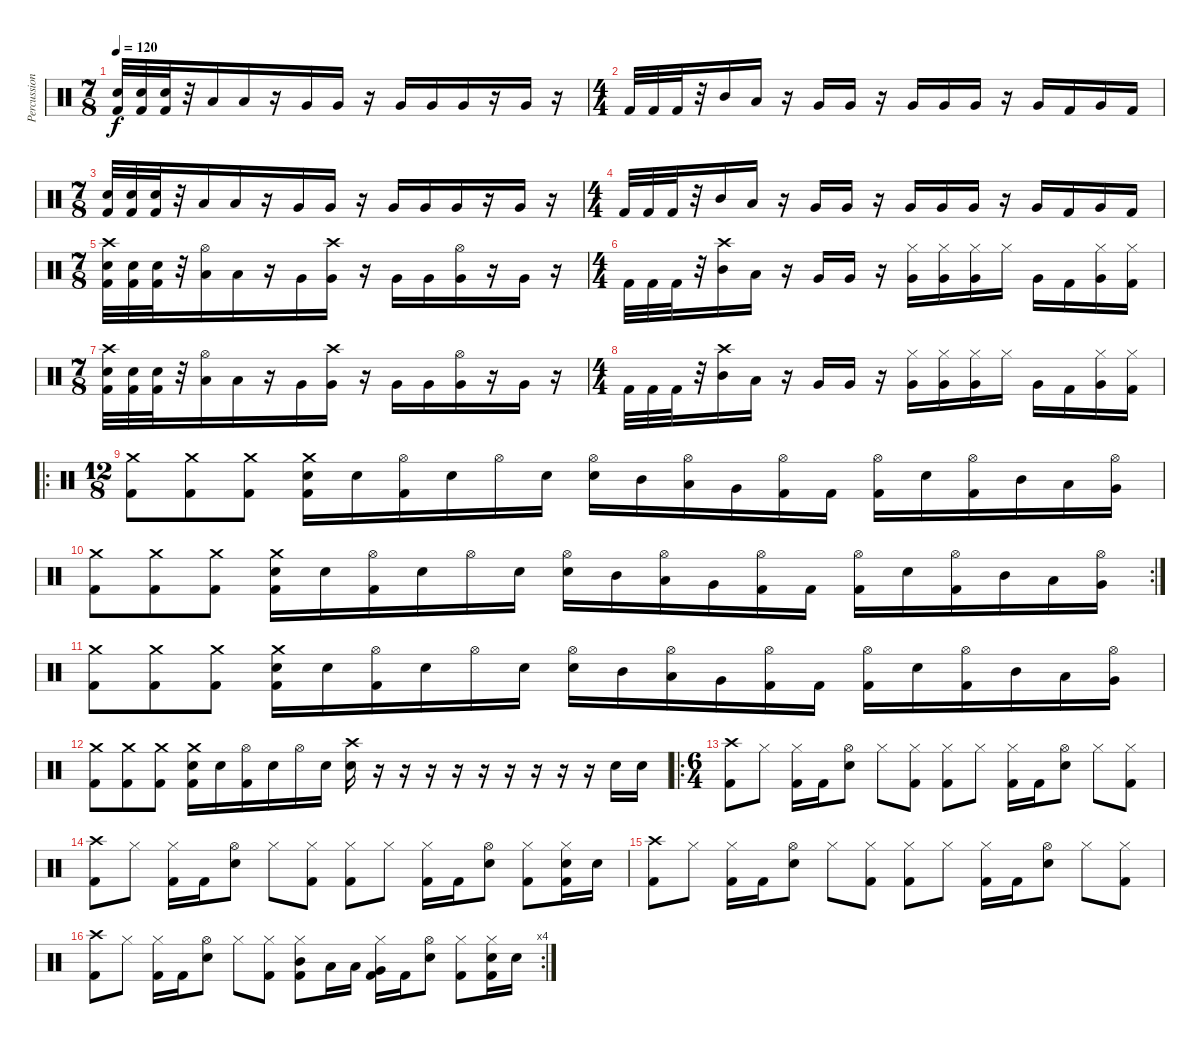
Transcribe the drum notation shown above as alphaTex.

\track ("Percussion" "Percussion") {instrument percussion}
\staff {score}
\articulation defaults
\ts (7 8)
\tempo 120
\clef neutral
\ks c
("Snare (hit) 2" "Kick (hit) 2").32{dy f} ("Snare (hit) 2" "Kick (hit) 2").32 ("Snare (hit) 2" "Kick (hit) 2").32 r.32 "Low Tom (hit)".16 "Low Tom (hit)".16 r.16 "Very Low Tom (hit)".16 "Very Low Tom (hit)".16 r.16 "Very Low Tom (hit)".16 "Very Low Tom (hit)".16 "Very Low Tom (hit)".16 r.16 "Very Low Tom (hit)".16 r.16 |
\ts (4 4)
"Kick (hit) 2".32 "Kick (hit) 2".32 "Kick (hit) 2".32 r.32 "Mid Tom (hit)".16 "Low Tom (hit)".16 r.16 "Very Low Tom (hit)".16 "Very Low Tom (hit)".16 r.16 "Very Low Tom (hit)".16 "Very Low Tom (hit)".16 "Very Low Tom (hit)".16 r.16 "Very Low Tom (hit)".16 "Kick (hit) 2".16 "Very Low Tom (hit)".16 "Kick (hit) 2".16 |
\ts (7 8)
("Snare (hit) 2" "Kick (hit) 2").32 ("Snare (hit) 2" "Kick (hit) 2").32 ("Snare (hit) 2" "Kick (hit) 2").32 r.32 "Low Tom (hit)".16 "Low Tom (hit)".16 r.16 "Very Low Tom (hit)".16 "Very Low Tom (hit)".16 r.16 "Very Low Tom (hit)".16 "Very Low Tom (hit)".16 "Very Low Tom (hit)".16 r.16 "Very Low Tom (hit)".16 r.16 |
\ts (4 4)
"Kick (hit) 2".32 "Kick (hit) 2".32 "Kick (hit) 2".32 r.32 "Mid Tom (hit)".16 "Low Tom (hit)".16 r.16 "Very Low Tom (hit)".16 "Very Low Tom (hit)".16 r.16 "Very Low Tom (hit)".16 "Very Low Tom (hit)".16 "Very Low Tom (hit)".16 r.16 "Very Low Tom (hit)".16 "Kick (hit) 2".16 "Very Low Tom (hit)".16 "Kick (hit) 2".16 |
\ts (7 8)
("Crash high (hit)" "Snare (hit) 2" "Kick (hit) 2").32 ("Snare (hit) 2" "Kick (hit) 2").32 ("Snare (hit) 2" "Kick (hit) 2").32 r.32 ("Hi-Hat (open)" "Low Tom (hit)").16 "Low Tom (hit)".16 r.16 "Very Low Tom (hit)".16 ("Crash high (hit)" "Very Low Tom (hit)").16 r.16 "Very Low Tom (hit)".16 "Very Low Tom (hit)".16 ("Hi-Hat (open)" "Very Low Tom (hit)").16 r.16 "Very Low Tom (hit)".16 r.16 |
\ts (4 4)
"Kick (hit) 2".32 "Kick (hit) 2".32 "Kick (hit) 2".32 r.32 ("Crash high (hit)" "Mid Tom (hit)").16 "Low Tom (hit)".16 r.16 "Very Low Tom (hit)".16 "Very Low Tom (hit)".16 r.16 ("Hi-Hat (closed)" "Very Low Tom (hit)").16 ("Hi-Hat (closed)" "Very Low Tom (hit)").16 ("Hi-Hat (closed)" "Very Low Tom (hit)").16 "Hi-Hat (closed)".16 "Very Low Tom (hit)".16 "Kick (hit) 2".16 ("Hi-Hat (closed)" "Very Low Tom (hit)").16 ("Hi-Hat (closed)" "Kick (hit) 2").16 |
\ts (7 8)
("Crash high (hit)" "Snare (hit) 2" "Kick (hit) 2").32 ("Snare (hit) 2" "Kick (hit) 2").32 ("Snare (hit) 2" "Kick (hit) 2").32 r.32 ("Hi-Hat (open)" "Low Tom (hit)").16 "Low Tom (hit)".16 r.16 "Very Low Tom (hit)".16 ("Crash high (hit)" "Very Low Tom (hit)").16 r.16 "Very Low Tom (hit)".16 "Very Low Tom (hit)".16 ("Hi-Hat (open)" "Very Low Tom (hit)").16 r.16 "Very Low Tom (hit)".16 r.16 |
\ts (4 4)
"Kick (hit) 2".32 "Kick (hit) 2".32 "Kick (hit) 2".32 r.32 ("Crash high (hit)" "Mid Tom (hit)").16 "Low Tom (hit)".16 r.16 "Very Low Tom (hit)".16 "Very Low Tom (hit)".16 r.16 ("Hi-Hat (closed)" "Very Low Tom (hit)").16 ("Hi-Hat (closed)" "Very Low Tom (hit)").16 ("Hi-Hat (closed)" "Very Low Tom (hit)").16 "Hi-Hat (closed)".16 "Very Low Tom (hit)".16 "Kick (hit) 2".16 ("Hi-Hat (closed)" "Very Low Tom (hit)").16 ("Hi-Hat (closed)" "Kick (hit) 2").16 |
\ro
\ts (12 8)
("Crash medium (hit)" "Kick (hit) 2").8 ("Crash medium (hit)" "Kick (hit) 2").8 ("Crash medium (hit)" "Kick (hit) 2").8 ("Crash medium (hit)" "Snare (hit) 2" "Kick (hit) 2").16 "Snare (hit) 2".16 ("Hi-Hat (open)" "Kick (hit) 2").16 "Snare (hit) 2".16 "Hi-Hat (open)".16 "Snare (hit) 2".16 ("Hi-Hat (open)" "Snare (hit) 2").16 "Mid Tom (hit)".16 ("Hi-Hat (open)" "Low Tom (hit)").16 "Very Low Tom (hit)".16 ("Hi-Hat (open)" "Kick (hit) 2").16 "Kick (hit) 2".16 ("Hi-Hat (open)" "Kick (hit) 2").16 "Snare (hit) 2".16 ("Hi-Hat (open)" "Kick (hit) 2").16 "Mid Tom (hit)".16 "Low Tom (hit)".16 ("Hi-Hat (open)" "Very Low Tom (hit)").16 |
\rc 2
("Crash medium (hit)" "Kick (hit) 2").8 ("Crash medium (hit)" "Kick (hit) 2").8 ("Crash medium (hit)" "Kick (hit) 2").8 ("Crash medium (hit)" "Snare (hit) 2" "Kick (hit) 2").16 "Snare (hit) 2".16 ("Hi-Hat (open)" "Kick (hit) 2").16 "Snare (hit) 2".16 "Hi-Hat (open)".16 "Snare (hit) 2".16 ("Hi-Hat (open)" "Snare (hit) 2").16 "Mid Tom (hit)".16 ("Hi-Hat (open)" "Low Tom (hit)").16 "Very Low Tom (hit)".16 ("Hi-Hat (open)" "Kick (hit) 2").16 "Kick (hit) 2".16 ("Hi-Hat (open)" "Kick (hit) 2").16 "Snare (hit) 2".16 ("Hi-Hat (open)" "Kick (hit) 2").16 "Mid Tom (hit)".16 "Low Tom (hit)".16 ("Hi-Hat (open)" "Very Low Tom (hit)").16 |
("Crash medium (hit)" "Kick (hit) 2").8 ("Crash medium (hit)" "Kick (hit) 2").8 ("Crash medium (hit)" "Kick (hit) 2").8 ("Crash medium (hit)" "Snare (hit) 2" "Kick (hit) 2").16 "Snare (hit) 2".16 ("Hi-Hat (open)" "Kick (hit) 2").16 "Snare (hit) 2".16 "Hi-Hat (open)".16 "Snare (hit) 2".16 ("Hi-Hat (open)" "Snare (hit) 2").16 "Mid Tom (hit)".16 ("Hi-Hat (open)" "Low Tom (hit)").16 "Very Low Tom (hit)".16 ("Hi-Hat (open)" "Kick (hit) 2").16 "Kick (hit) 2".16 ("Hi-Hat (open)" "Kick (hit) 2").16 "Snare (hit) 2".16 ("Hi-Hat (open)" "Kick (hit) 2").16 "Mid Tom (hit)".16 "Low Tom (hit)".16 ("Hi-Hat (open)" "Very Low Tom (hit)").16 |
("Crash medium (hit)" "Kick (hit) 2").8 ("Crash medium (hit)" "Kick (hit) 2").8 ("Crash medium (hit)" "Kick (hit) 2").8 ("Crash medium (hit)" "Snare (hit) 2" "Kick (hit) 2").16 "Snare (hit) 2".16 ("Hi-Hat (open)" "Kick (hit) 2").16 "Snare (hit) 2".16 "Hi-Hat (open)".16 "Snare (hit) 2".16 ("Crash high (hit)" "Snare (hit) 2").16 r.16 r.16 r.16 r.16 r.16 r.16 r.16 r.16 r.16 "Snare (hit) 2".16 "Snare (hit) 2".16 |
\ro
\ts (6 4)
("Crash high (hit)" "Kick (hit) 2").8 "Hi-Hat (closed)".8 ("Hi-Hat (closed)" "Kick (hit) 2").16 "Kick (hit) 2".16 ("Hi-Hat (open)" "Snare (hit) 2").8 "Hi-Hat (closed)".8 ("Hi-Hat (closed)" "Kick (hit) 2").8 ("Hi-Hat (closed)" "Kick (hit) 2").8 "Hi-Hat (closed)".8 ("Hi-Hat (closed)" "Kick (hit) 2").16 "Kick (hit) 2".16 ("Hi-Hat (open)" "Snare (hit) 2").8 "Hi-Hat (closed)".8 ("Hi-Hat (closed)" "Kick (hit) 2").8 |
("Crash high (hit)" "Kick (hit) 2").8 "Hi-Hat (closed)".8 ("Hi-Hat (closed)" "Kick (hit) 2").16 "Kick (hit) 2".16 ("Hi-Hat (open)" "Snare (hit) 2").8 "Hi-Hat (closed)".8 ("Hi-Hat (closed)" "Kick (hit) 2").8 ("Hi-Hat (closed)" "Kick (hit) 2").8 "Hi-Hat (closed)".8 ("Hi-Hat (closed)" "Kick (hit) 2").16 "Kick (hit) 2".16 ("Hi-Hat (open)" "Snare (hit) 2").8 ("Hi-Hat (closed)" "Kick (hit) 2").8 ("Hi-Hat (closed)" "Snare (hit) 2" "Kick (hit) 2").16 "Snare (hit) 2".16 |
("Crash high (hit)" "Kick (hit) 2").8 "Hi-Hat (closed)".8 ("Hi-Hat (closed)" "Kick (hit) 2").16 "Kick (hit) 2".16 ("Hi-Hat (open)" "Snare (hit) 2").8 "Hi-Hat (closed)".8 ("Hi-Hat (closed)" "Kick (hit) 2").8 ("Hi-Hat (closed)" "Kick (hit) 2").8 "Hi-Hat (closed)".8 ("Hi-Hat (closed)" "Kick (hit) 2").16 "Kick (hit) 2".16 ("Hi-Hat (open)" "Snare (hit) 2").8 "Hi-Hat (closed)".8 ("Hi-Hat (closed)" "Kick (hit) 2").8 |
\rc 4
("Crash high (hit)" "Kick (hit) 2").8 "Hi-Hat (closed)".8 ("Hi-Hat (closed)" "Kick (hit) 2").16 "Kick (hit) 2".16 ("Hi-Hat (open)" "Snare (hit) 2").8 "Hi-Hat (closed)".8 ("Hi-Hat (closed)" "Kick (hit) 2").8 ("Hi-Hat (closed)" "Mid Tom (hit)" "Kick (hit) 2").8 "Low Tom (hit)".16 "Low Tom (hit)".16 ("Hi-Hat (closed)" "Very Low Tom (hit)" "Kick (hit) 2").16 "Kick (hit) 2".16 ("Hi-Hat (open)" "Snare (hit) 2").8 ("Hi-Hat (closed)" "Kick (hit) 2").8 ("Hi-Hat (closed)" "Snare (hit) 2" "Kick (hit) 2").16 "Snare (hit) 2".16
